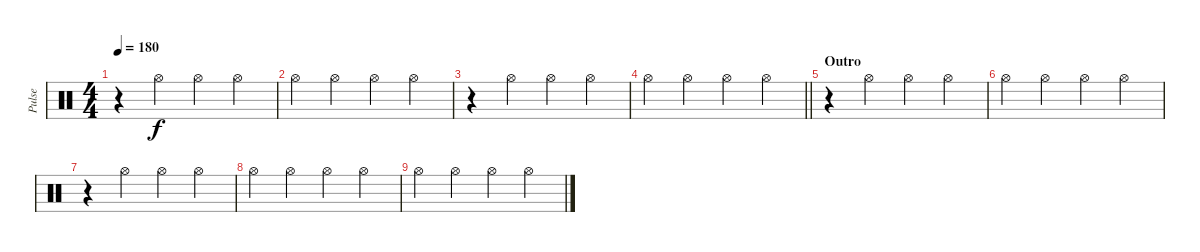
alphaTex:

\track ("Pulse" "Pulse") {instrument percussion}
\staff {score}
\articulation defaults
\ts (4 4)
\tempo 180
\clef neutral
\ks c
r.4{dy f} "Hi-Hat (open)".4 "Hi-Hat (open)".4 "Hi-Hat (open)".4 |
"Hi-Hat (open)".4 "Hi-Hat (open)".4 "Hi-Hat (open)".4 "Hi-Hat (open)".4 |
r.4 "Hi-Hat (open)".4 "Hi-Hat (open)".4 "Hi-Hat (open)".4 |
\barLineRight lightlight "Hi-Hat (open)".4 "Hi-Hat (open)".4 "Hi-Hat (open)".4 "Hi-Hat (open)".4
|
\section ("" "Outro")
r.4 "Hi-Hat (open)".4 "Hi-Hat (open)".4 "Hi-Hat (open)".4 |
"Hi-Hat (open)".4 "Hi-Hat (open)".4 "Hi-Hat (open)".4 "Hi-Hat (open)".4 |
r.4 "Hi-Hat (open)".4 "Hi-Hat (open)".4 "Hi-Hat (open)".4 |
"Hi-Hat (open)".4 "Hi-Hat (open)".4 "Hi-Hat (open)".4 "Hi-Hat (open)".4 |
"Hi-Hat (open)".4 "Hi-Hat (open)".4 "Hi-Hat (open)".4 "Hi-Hat (open)".4
